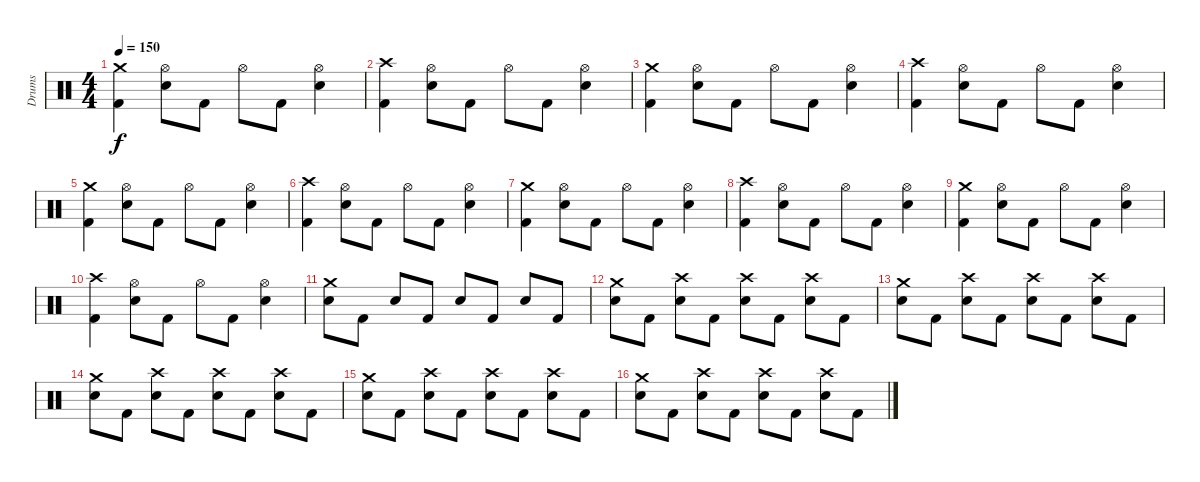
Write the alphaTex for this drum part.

\track ("Drums" "Drums") {instrument percussion}
\staff {score}
\articulation defaults
\ts (4 4)
\tempo 150
\clef neutral
\ks c
("Crash medium (hit)" "Kick (hit) 2").4{dy f} ("Hi-Hat (open)" "Electric Snare (hit)").8 "Kick (hit) 2".8 "Hi-Hat (open)".8 "Kick (hit) 2".8 ("Hi-Hat (open)" "Electric Snare (hit)").4 |
("Crash high (hit)" "Kick (hit) 2").4 ("Hi-Hat (open)" "Electric Snare (hit)").8 "Kick (hit) 2".8 "Hi-Hat (open)".8 "Kick (hit) 2".8 ("Hi-Hat (open)" "Electric Snare (hit)").4 |
("Crash medium (hit)" "Kick (hit) 2").4 ("Hi-Hat (open)" "Electric Snare (hit)").8 "Kick (hit) 2".8 "Hi-Hat (open)".8 "Kick (hit) 2".8 ("Hi-Hat (open)" "Electric Snare (hit)").4 |
("Crash high (hit)" "Kick (hit) 2").4 ("Hi-Hat (open)" "Electric Snare (hit)").8 "Kick (hit) 2".8 "Hi-Hat (open)".8 "Kick (hit) 2".8 ("Hi-Hat (open)" "Electric Snare (hit)").4 |
("Crash medium (hit)" "Kick (hit) 2").4 ("Hi-Hat (open)" "Electric Snare (hit)").8 "Kick (hit) 2".8 "Hi-Hat (open)".8 "Kick (hit) 2".8 ("Hi-Hat (open)" "Electric Snare (hit)").4 |
("Crash high (hit)" "Kick (hit) 2").4 ("Hi-Hat (open)" "Electric Snare (hit)").8 "Kick (hit) 2".8 "Hi-Hat (open)".8 "Kick (hit) 2".8 ("Hi-Hat (open)" "Electric Snare (hit)").4 |
("Crash medium (hit)" "Kick (hit) 2").4 ("Hi-Hat (open)" "Electric Snare (hit)").8 "Kick (hit) 2".8 "Hi-Hat (open)".8 "Kick (hit) 2".8 ("Hi-Hat (open)" "Electric Snare (hit)").4 |
("Crash high (hit)" "Kick (hit) 2").4 ("Hi-Hat (open)" "Electric Snare (hit)").8 "Kick (hit) 2".8 "Hi-Hat (open)".8 "Kick (hit) 2".8 ("Hi-Hat (open)" "Electric Snare (hit)").4 |
("Crash medium (hit)" "Kick (hit) 2").4 ("Hi-Hat (open)" "Electric Snare (hit)").8 "Kick (hit) 2".8 "Hi-Hat (open)".8 "Kick (hit) 2".8 ("Hi-Hat (open)" "Electric Snare (hit)").4 |
("Crash high (hit)" "Kick (hit) 2").4 ("Hi-Hat (open)" "Electric Snare (hit)").8 "Kick (hit) 2".8 "Hi-Hat (open)".8 "Kick (hit) 2".8 ("Hi-Hat (open)" "Electric Snare (hit)").4 |
("Crash medium (hit)" "Electric Snare (hit)").8 "Kick (hit) 2".8 "Electric Snare (hit)".8 "Kick (hit) 2".8 "Electric Snare (hit)".8 "Kick (hit) 2".8 "Electric Snare (hit)".8 "Kick (hit) 2".8 |
("Crash medium (hit)" "Electric Snare (hit)").8 "Kick (hit) 2".8 ("Crash high (hit)" "Electric Snare (hit)").8 "Kick (hit) 2".8 ("Crash high (hit)" "Electric Snare (hit)").8 "Kick (hit) 2".8 ("Crash high (hit)" "Electric Snare (hit)").8 "Kick (hit) 2".8 |
("Crash medium (hit)" "Electric Snare (hit)").8 "Kick (hit) 2".8 ("Crash high (hit)" "Electric Snare (hit)").8 "Kick (hit) 2".8 ("Crash high (hit)" "Electric Snare (hit)").8 "Kick (hit) 2".8 ("Crash high (hit)" "Electric Snare (hit)").8 "Kick (hit) 2".8 |
("Crash medium (hit)" "Electric Snare (hit)").8 "Kick (hit) 2".8 ("Crash high (hit)" "Electric Snare (hit)").8 "Kick (hit) 2".8 ("Crash high (hit)" "Electric Snare (hit)").8 "Kick (hit) 2".8 ("Crash high (hit)" "Electric Snare (hit)").8 "Kick (hit) 2".8 |
("Crash medium (hit)" "Electric Snare (hit)").8 "Kick (hit) 2".8 ("Crash high (hit)" "Electric Snare (hit)").8 "Kick (hit) 2".8 ("Crash high (hit)" "Electric Snare (hit)").8 "Kick (hit) 2".8 ("Crash high (hit)" "Electric Snare (hit)").8 "Kick (hit) 2".8 |
("Crash medium (hit)" "Electric Snare (hit)").8 "Kick (hit) 2".8 ("Crash high (hit)" "Electric Snare (hit)").8 "Kick (hit) 2".8 ("Crash high (hit)" "Electric Snare (hit)").8 "Kick (hit) 2".8 ("Crash high (hit)" "Electric Snare (hit)").8 "Kick (hit) 2".8
